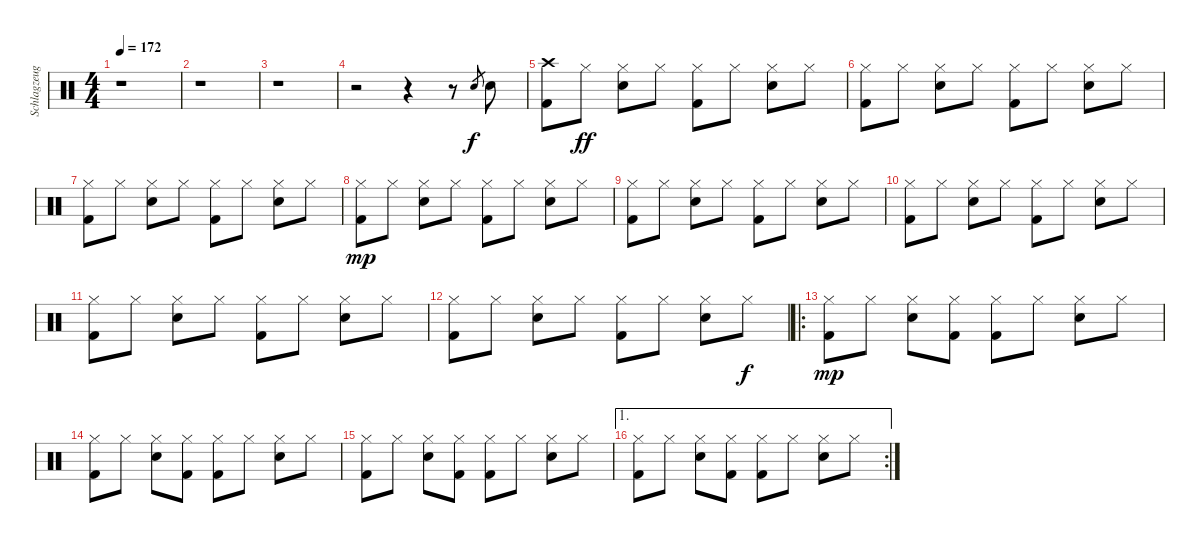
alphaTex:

\track ("Schlagzeug" "Schlagzeug") {instrument percussion}
\staff {score}
\articulation defaults
\ts (4 4)
\tempo 172
\clef neutral
\ks c
r.1{dy f} |
r.1 |
r.1 |
r.2 r.4 r.8 "Snare (hit) 2".8{gr} "Snare (hit) 2".8 |
("Crash high (hit)" "Kick (hit) 2").8 "Hi-Hat (closed)".8{dy ff} ("Hi-Hat (closed)" "Electric Snare (hit)").8 "Hi-Hat (closed)".8 ("Hi-Hat (closed)" "Kick (hit) 2").8 "Hi-Hat (closed)".8 ("Hi-Hat (closed)" "Electric Snare (hit)").8 "Hi-Hat (closed)".8 |
("Hi-Hat (closed)" "Kick (hit) 2").8 "Hi-Hat (closed)".8 ("Hi-Hat (closed)" "Electric Snare (hit)").8 "Hi-Hat (closed)".8 ("Hi-Hat (closed)" "Kick (hit) 2").8 "Hi-Hat (closed)".8 ("Hi-Hat (closed)" "Electric Snare (hit)").8 "Hi-Hat (closed)".8 |
("Hi-Hat (closed)" "Kick (hit) 2").8 "Hi-Hat (closed)".8 ("Hi-Hat (closed)" "Electric Snare (hit)").8 "Hi-Hat (closed)".8 ("Hi-Hat (closed)" "Kick (hit) 2").8 "Hi-Hat (closed)".8 ("Hi-Hat (closed)" "Electric Snare (hit)").8 "Hi-Hat (closed)".8 |
("Hi-Hat (closed)" "Kick (hit) 2").8{dy mp} "Hi-Hat (closed)".8 ("Hi-Hat (closed)" "Electric Snare (hit)").8 "Hi-Hat (closed)".8 ("Hi-Hat (closed)" "Kick (hit) 2").8 "Hi-Hat (closed)".8 ("Hi-Hat (closed)" "Electric Snare (hit)").8 "Hi-Hat (closed)".8 |
("Hi-Hat (closed)" "Kick (hit) 2").8 "Hi-Hat (closed)".8 ("Hi-Hat (closed)" "Electric Snare (hit)").8 "Hi-Hat (closed)".8 ("Hi-Hat (closed)" "Kick (hit) 2").8 "Hi-Hat (closed)".8 ("Hi-Hat (closed)" "Electric Snare (hit)").8 "Hi-Hat (closed)".8 |
("Hi-Hat (closed)" "Kick (hit) 2").8 "Hi-Hat (closed)".8 ("Hi-Hat (closed)" "Electric Snare (hit)").8 "Hi-Hat (closed)".8 ("Hi-Hat (closed)" "Kick (hit) 2").8 "Hi-Hat (closed)".8 ("Hi-Hat (closed)" "Electric Snare (hit)").8 "Hi-Hat (closed)".8 |
("Hi-Hat (closed)" "Kick (hit) 2").8 "Hi-Hat (closed)".8 ("Hi-Hat (closed)" "Electric Snare (hit)").8 "Hi-Hat (closed)".8 ("Hi-Hat (closed)" "Kick (hit) 2").8 "Hi-Hat (closed)".8 ("Hi-Hat (closed)" "Electric Snare (hit)").8 "Hi-Hat (closed)".8 |
("Hi-Hat (closed)" "Kick (hit) 2").8 "Hi-Hat (closed)".8 ("Hi-Hat (closed)" "Electric Snare (hit)").8 "Hi-Hat (closed)".8 ("Hi-Hat (closed)" "Kick (hit) 2").8 "Hi-Hat (closed)".8 ("Hi-Hat (closed)" "Electric Snare (hit)").8 "Hi-Hat (closed)".8{dy f} |
\ro
("Hi-Hat (closed)" "Kick (hit) 2").8{dy mp} "Hi-Hat (closed)".8 ("Hi-Hat (closed)" "Electric Snare (hit)").8 ("Hi-Hat (closed)" "Kick (hit) 2").8 ("Hi-Hat (closed)" "Kick (hit) 2").8 "Hi-Hat (closed)".8 ("Hi-Hat (closed)" "Electric Snare (hit)").8 "Hi-Hat (closed)".8 |
("Hi-Hat (closed)" "Kick (hit) 2").8 "Hi-Hat (closed)".8 ("Hi-Hat (closed)" "Electric Snare (hit)").8 ("Hi-Hat (closed)" "Kick (hit) 2").8 ("Hi-Hat (closed)" "Kick (hit) 2").8 "Hi-Hat (closed)".8 ("Hi-Hat (closed)" "Electric Snare (hit)").8 "Hi-Hat (closed)".8 |
("Hi-Hat (closed)" "Kick (hit) 2").8 "Hi-Hat (closed)".8 ("Hi-Hat (closed)" "Electric Snare (hit)").8 ("Hi-Hat (closed)" "Kick (hit) 2").8 ("Hi-Hat (closed)" "Kick (hit) 2").8 "Hi-Hat (closed)".8 ("Hi-Hat (closed)" "Electric Snare (hit)").8 "Hi-Hat (closed)".8 |
\ae 1
\rc 2
("Hi-Hat (closed)" "Kick (hit) 2").8 "Hi-Hat (closed)".8 ("Hi-Hat (closed)" "Electric Snare (hit)").8 ("Hi-Hat (closed)" "Kick (hit) 2").8 ("Hi-Hat (closed)" "Kick (hit) 2").8 "Hi-Hat (closed)".8 ("Hi-Hat (closed)" "Electric Snare (hit)").8 "Hi-Hat (closed)".8
